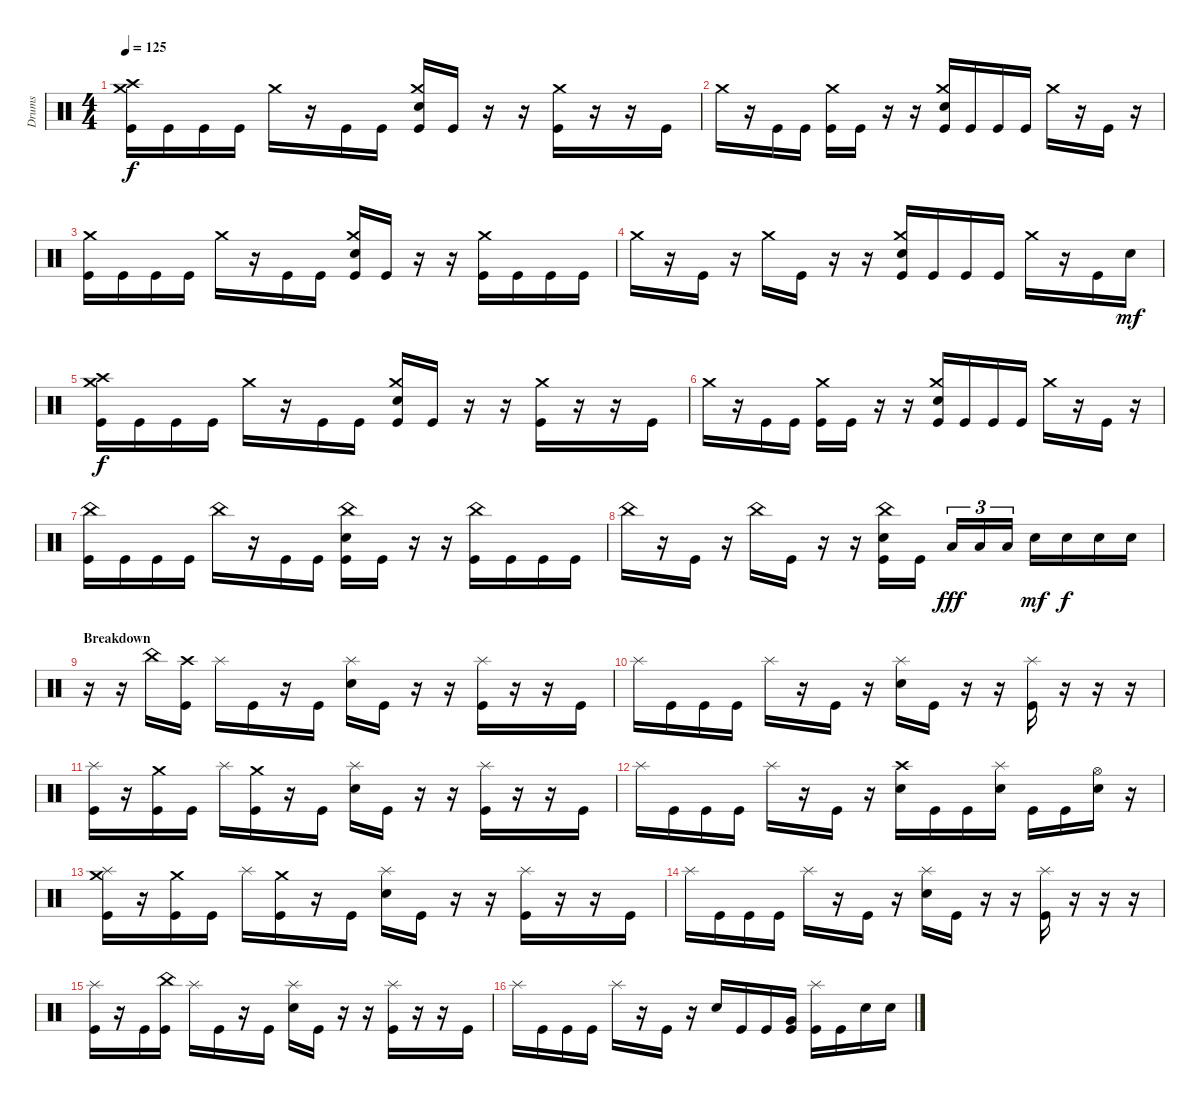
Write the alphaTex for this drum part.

\track ("Drums" "Drums") {instrument percussion}
\staff {score}
\articulation defaults
\ts (4 4)
\tempo 125
\clef neutral
\ks c
("Kick (hit)" "Crash medium (hit)" "Crash high (hit)").16{dy f} "Kick (hit)".16 "Kick (hit)".16 "Kick (hit)".16 "Crash medium (hit)".16 r.16 "Kick (hit)".16 "Kick (hit)".16 ("Kick (hit)" "Crash medium (hit)" "Snare (hit) 2").16 "Kick (hit)".16 r.16 r.16 ("Kick (hit)" "Crash medium (hit)").16 r.16 r.16 "Kick (hit)".16 |
"Crash medium (hit)".16 r.16 "Kick (hit)".16 "Kick (hit)".16 ("Kick (hit)" "Crash medium (hit)").16 "Kick (hit)".16 r.16 r.16 ("Kick (hit)" "Crash medium (hit)" "Snare (hit) 2").16 "Kick (hit)".16 "Kick (hit)".16 "Kick (hit)".16 "Crash medium (hit)".16 r.16 "Kick (hit)".16 r.16 |
("Kick (hit)" "Crash medium (hit)").16 "Kick (hit)".16 "Kick (hit)".16 "Kick (hit)".16 "Crash medium (hit)".16 r.16 "Kick (hit)".16 "Kick (hit)".16 ("Kick (hit)" "Crash medium (hit)" "Snare (hit) 2").16 "Kick (hit)".16 r.16 r.16 ("Kick (hit)" "Crash medium (hit)").16 "Kick (hit)".16 "Kick (hit)".16 "Kick (hit)".16 |
"Crash medium (hit)".16 r.16 "Kick (hit)".16 r.16 "Crash medium (hit)".16 "Kick (hit)".16 r.16 r.16 ("Kick (hit)" "Crash medium (hit)" "Snare (hit) 2").16 "Kick (hit)".16 "Kick (hit)".16 "Kick (hit)".16 "Crash medium (hit)".16 r.16 "Kick (hit)".16 "Snare (hit) 2".16{dy mf} |
("Kick (hit)" "Crash medium (hit)" "Crash high (hit)").16{dy f} "Kick (hit)".16 "Kick (hit)".16 "Kick (hit)".16 "Crash medium (hit)".16 r.16 "Kick (hit)".16 "Kick (hit)".16 ("Kick (hit)" "Crash medium (hit)" "Snare (hit) 2").16 "Kick (hit)".16 r.16 r.16 ("Kick (hit)" "Crash medium (hit)").16 r.16 r.16 "Kick (hit)".16 |
"Crash medium (hit)".16 r.16 "Kick (hit)".16 "Kick (hit)".16 ("Kick (hit)" "Crash medium (hit)").16 "Kick (hit)".16 r.16 r.16 ("Kick (hit)" "Crash medium (hit)" "Snare (hit) 2").16 "Kick (hit)".16 "Kick (hit)".16 "Kick (hit)".16 "Crash medium (hit)".16 r.16 "Kick (hit)".16 r.16 |
("Kick (hit)" "China (hit)").16 "Kick (hit)".16 "Kick (hit)".16 "Kick (hit)".16 "China (hit)".16 r.16 "Kick (hit)".16 "Kick (hit)".16 ("Kick (hit)" "Snare (hit) 2" "China (hit)").16 "Kick (hit)".16 r.16 r.16 ("Kick (hit)" "China (hit)").16 "Kick (hit)".16 "Kick (hit)".16 "Kick (hit)".16 |
"China (hit)".16 r.16 "Kick (hit)".16 r.16 "China (hit)".16 "Kick (hit)".16 r.16 r.16 ("Kick (hit)" "Snare (hit) 2" "China (hit)").16 "Kick (hit)".16 "Low Tom (hit)".16{tu (3 2) dy fff} "Low Tom (hit)".16{tu (3 2)} "Low Tom (hit)".16{tu (3 2)} "Snare (hit) 2".16{dy mf} "Snare (hit) 2".16{dy f} "Snare (hit) 2".16 "Snare (hit) 2".16 |
\section ("" "Breakdown")
r.16 r.16 "China (hit)".16 ("Crash high (hit)" "Kick (hit)").16 "Splash (hit)".16 "Kick (hit)".16 r.16 "Kick (hit)".16 ("Splash (hit)" "Snare (hit) 2").16 "Kick (hit)".16 r.16 r.16 ("Kick (hit)" "Splash (hit)").16 r.16 r.16 "Kick (hit)".16 |
"Splash (hit)".16 "Kick (hit)".16 "Kick (hit)".16 "Kick (hit)".16 "Splash (hit)".16 r.16 "Kick (hit)".16 r.16 ("Splash (hit)" "Snare (hit) 2").16 "Kick (hit)".16 r.16 r.16 ("Splash (hit)" "Kick (hit)").16 r.16 r.16 r.16 |
("Splash (hit)" "Kick (hit)").16 r.16 ("Kick (hit)" "Crash medium (hit)").16 "Kick (hit)".16 "Splash (hit)".16 ("Kick (hit)" "Crash medium (hit)").16 r.16 "Kick (hit)".16 ("Splash (hit)" "Snare (hit) 2").16 "Kick (hit)".16 r.16 r.16 ("Splash (hit)" "Kick (hit)").16 r.16 r.16 "Kick (hit)".16 |
"Splash (hit)".16 "Kick (hit)".16 "Kick (hit)".16 "Kick (hit)".16 "Splash (hit)".16 r.16 "Kick (hit)".16 r.16 ("Snare (hit) 2" "Crash high (hit)").16 "Kick (hit)".16 "Kick (hit)".16 ("Snare (hit) 2" "Splash (hit)").16 "Kick (hit)".16 "Kick (hit)".16 ("Snare (hit) 2" "Hi-Hat (open)").16 r.16 |
("Kick (hit)" "Splash (hit)" "Crash medium (hit)").16 r.16 ("Kick (hit)" "Crash medium (hit)").16 "Kick (hit)".16 "Splash (hit)".16 ("Kick (hit)" "Crash medium (hit)").16 r.16 "Kick (hit)".16 ("Splash (hit)" "Snare (hit) 2").16 "Kick (hit)".16 r.16 r.16 ("Kick (hit)" "Splash (hit)").16 r.16 r.16 "Kick (hit)".16 |
"Splash (hit)".16 "Kick (hit)".16 "Kick (hit)".16 "Kick (hit)".16 "Splash (hit)".16 r.16 "Kick (hit)".16 r.16 ("Splash (hit)" "Snare (hit) 2").16 "Kick (hit)".16 r.16 r.16 ("Splash (hit)" "Kick (hit)").16 r.16 r.16 r.16 |
("Splash (hit)" "Kick (hit)").16 r.16 "Kick (hit)".16 ("Kick (hit)" "China (hit)").16 "Splash (hit)".16 "Kick (hit)".16 r.16 "Kick (hit)".16 ("Splash (hit)" "Snare (hit) 2").16 "Kick (hit)".16 r.16 r.16 ("Splash (hit)" "Kick (hit)").16 r.16 r.16 "Kick (hit)".16 |
"Splash (hit)".16 "Kick (hit)".16 "Kick (hit)".16 "Kick (hit)".16 "Splash (hit)".16 r.16 "Kick (hit)".16 r.16 "Snare (hit) 2".16 "Kick (hit)".16 "Kick (hit)".16 ("Kick (hit)" "Very Low Tom (hit)").16 ("Kick (hit)" "Splash (hit)").16 "Kick (hit)".16 "Snare (hit) 2".16 "Snare (hit) 2".16
